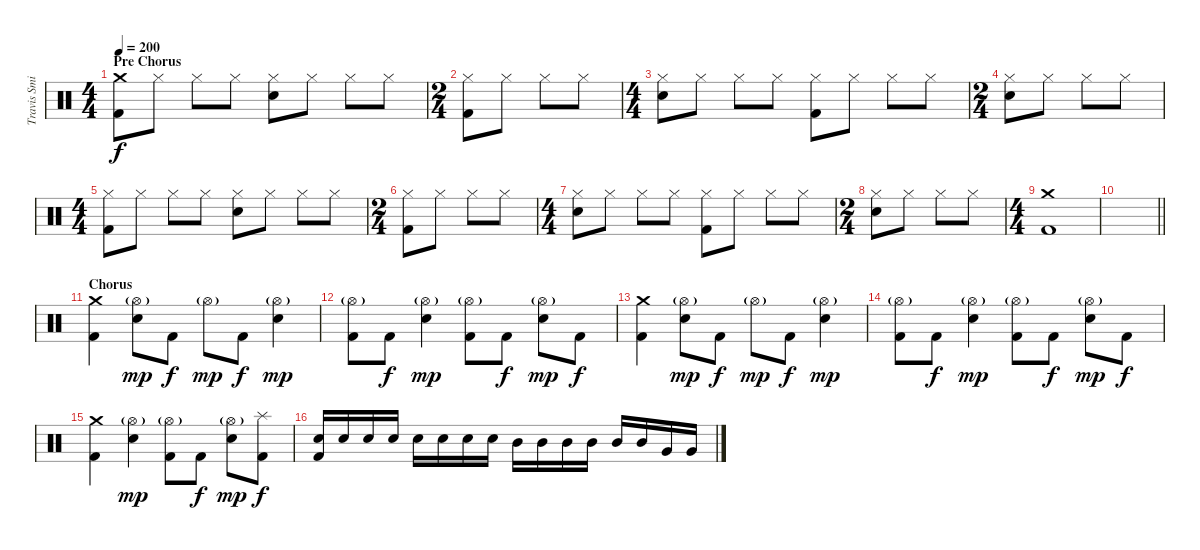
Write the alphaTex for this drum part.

\track ("Travis Smith" "Travis Smi") {instrument percussion}
\staff {score}
\articulation defaults
\ts (4 4)
\section ("" "Pre Chorus")
\tempo 200
\clef neutral
\ks c
("Crash medium (hit)" "Kick (hit) 2").8{dy f} "Hi-Hat (closed)".8 "Hi-Hat (closed)".8 "Hi-Hat (closed)".8 ("Hi-Hat (closed)" "Electric Snare (hit)").8 "Hi-Hat (closed)".8 "Hi-Hat (closed)".8 "Hi-Hat (closed)".8 |
\ts (2 4)
("Hi-Hat (closed)" "Kick (hit) 2").8 "Hi-Hat (closed)".8 "Hi-Hat (closed)".8 "Hi-Hat (closed)".8 |
\ts (4 4)
("Hi-Hat (closed)" "Electric Snare (hit)").8 "Hi-Hat (closed)".8 "Hi-Hat (closed)".8 "Hi-Hat (closed)".8 ("Hi-Hat (closed)" "Kick (hit) 2").8 "Hi-Hat (closed)".8 "Hi-Hat (closed)".8 "Hi-Hat (closed)".8 |
\ts (2 4)
("Hi-Hat (closed)" "Electric Snare (hit)").8 "Hi-Hat (closed)".8 "Hi-Hat (closed)".8 "Hi-Hat (closed)".8 |
\ts (4 4)
("Hi-Hat (closed)" "Kick (hit) 2").8 "Hi-Hat (closed)".8 "Hi-Hat (closed)".8 "Hi-Hat (closed)".8 ("Hi-Hat (closed)" "Electric Snare (hit)").8 "Hi-Hat (closed)".8 "Hi-Hat (closed)".8 "Hi-Hat (closed)".8 |
\ts (2 4)
("Hi-Hat (closed)" "Kick (hit) 2").8 "Hi-Hat (closed)".8 "Hi-Hat (closed)".8 "Hi-Hat (closed)".8 |
\ts (4 4)
("Hi-Hat (closed)" "Electric Snare (hit)").8 "Hi-Hat (closed)".8 "Hi-Hat (closed)".8 "Hi-Hat (closed)".8 ("Hi-Hat (closed)" "Kick (hit) 2").8 "Hi-Hat (closed)".8 "Hi-Hat (closed)".8 "Hi-Hat (closed)".8 |
\ts (2 4)
("Hi-Hat (closed)" "Electric Snare (hit)").8 "Hi-Hat (closed)".8 "Hi-Hat (closed)".8 "Hi-Hat (closed)".8 |
\ts (4 4)
("Crash medium (hit)" "Kick (hit) 2").1 |
\barLineRight lightlight
|
\section ("" "Chorus")
("Crash medium (hit)" "Kick (hit) 2").4 ("Hi-Hat (open)"{g} "Electric Snare (hit)").8{dy mp} "Kick (hit) 2".8{dy f} "Hi-Hat (open)"{g}.8{dy mp} "Kick (hit) 2".8{dy f} ("Hi-Hat (open)"{g} "Electric Snare (hit)").4{dy mp} |
("Hi-Hat (open)"{g} "Kick (hit) 2").8 "Kick (hit) 2".8{dy f} ("Hi-Hat (open)"{g} "Electric Snare (hit)").4{dy mp} ("Hi-Hat (open)"{g} "Kick (hit) 2").8 "Kick (hit) 2".8{dy f} ("Hi-Hat (open)"{g} "Electric Snare (hit)").8{dy mp} "Kick (hit) 2".8{dy f} |
("Crash medium (hit)" "Kick (hit) 2").4 ("Hi-Hat (open)"{g} "Electric Snare (hit)").8{dy mp} "Kick (hit) 2".8{dy f} "Hi-Hat (open)"{g}.8{dy mp} "Kick (hit) 2".8{dy f} ("Hi-Hat (open)"{g} "Electric Snare (hit)").4{dy mp} |
("Hi-Hat (open)"{g} "Kick (hit) 2").8 "Kick (hit) 2".8{dy f} ("Hi-Hat (open)"{g} "Electric Snare (hit)").4{dy mp} ("Hi-Hat (open)"{g} "Kick (hit) 2").8 "Kick (hit) 2".8{dy f} ("Hi-Hat (open)"{g} "Electric Snare (hit)").8{dy mp} "Kick (hit) 2".8{dy f} |
("Crash medium (hit)" "Kick (hit) 2").4 ("Hi-Hat (open)"{g} "Electric Snare (hit)").4{dy mp} ("Hi-Hat (open)"{g} "Kick (hit) 2").8 "Kick (hit) 2".8{dy f} ("Hi-Hat (open)"{g} "Electric Snare (hit)").8{dy mp} ("Splash (hit)" "Kick (hit) 2").8{dy f} |
("Electric Snare (hit)" "Kick (hit) 2").16 "Electric Snare (hit)".16 "Electric Snare (hit)".16 "Electric Snare (hit)".16 "Electric Snare (hit)".16 "Electric Snare (hit)".16 "Electric Snare (hit)".16 "Electric Snare (hit)".16 "Mid Tom (hit)".16 "Mid Tom (hit)".16 "Mid Tom (hit)".16 "Mid Tom (hit)".16 "Mid Tom (hit)".16 "Mid Tom (hit)".16 "Very Low Tom (hit)".16 "Very Low Tom (hit)".16
